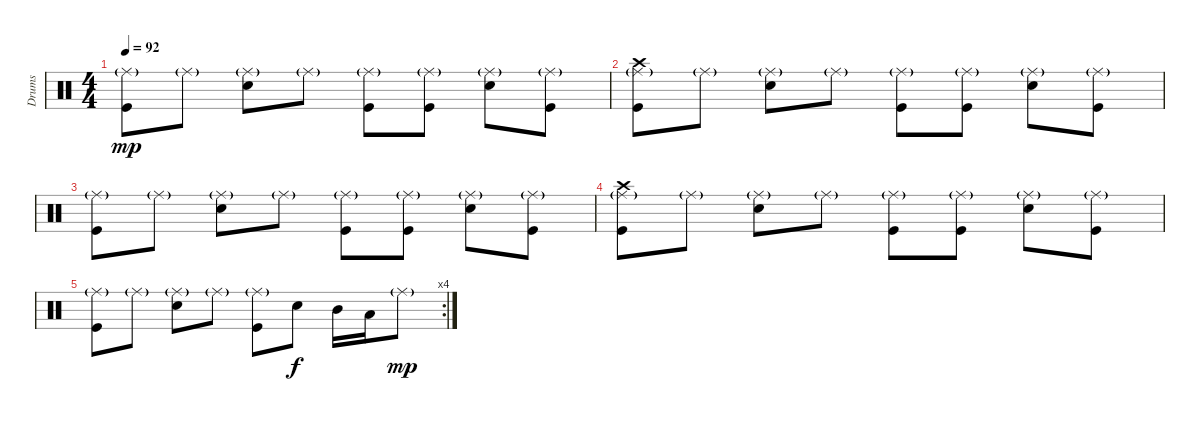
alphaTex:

\track ("Drums" "Drums") {instrument percussion}
\staff {score}
\articulation defaults
\ts (4 4)
\tempo 92
\clef neutral
\ks c
("Ride (middle)"{g} "Kick (hit)").8{dy mp} "Ride (middle)"{g}.8 ("Ride (middle)"{g} "Snare (hit) 2").8 "Ride (middle)"{g}.8 ("Ride (middle)"{g} "Kick (hit)").8 ("Ride (middle)"{g} "Kick (hit)").8 ("Ride (middle)"{g} "Snare (hit) 2").8 ("Ride (middle)"{g} "Kick (hit)").8 |
("Ride (middle)"{g} "Crash high (hit)" "Kick (hit)").8 "Ride (middle)"{g}.8 ("Ride (middle)"{g} "Snare (hit) 2").8 "Ride (middle)"{g}.8 ("Ride (middle)"{g} "Kick (hit)").8 ("Ride (middle)"{g} "Kick (hit)").8 ("Ride (middle)"{g} "Snare (hit) 2").8 ("Ride (middle)"{g} "Kick (hit)").8 |
("Ride (middle)"{g} "Kick (hit)").8 "Ride (middle)"{g}.8 ("Ride (middle)"{g} "Snare (hit) 2").8 "Ride (middle)"{g}.8 ("Ride (middle)"{g} "Kick (hit)").8 ("Ride (middle)"{g} "Kick (hit)").8 ("Ride (middle)"{g} "Snare (hit) 2").8 ("Ride (middle)"{g} "Kick (hit)").8 |
("Ride (middle)"{g} "Crash high (hit)" "Kick (hit)").8 "Ride (middle)"{g}.8 ("Ride (middle)"{g} "Snare (hit) 2").8 "Ride (middle)"{g}.8 ("Ride (middle)"{g} "Kick (hit)").8 ("Ride (middle)"{g} "Kick (hit)").8 ("Ride (middle)"{g} "Snare (hit) 2").8 ("Ride (middle)"{g} "Kick (hit)").8 |
\rc 4
("Ride (middle)"{g} "Kick (hit)").8 "Ride (middle)"{g}.8 ("Ride (middle)"{g} "Snare (hit) 2").8 "Ride (middle)"{g}.8 ("Ride (middle)"{g} "Kick (hit)").8 "Snare (hit) 2".8{dy f} "Mid Tom (hit)".16 "Low Tom (hit)".16 "Ride (middle)"{g}.8{dy mp}
